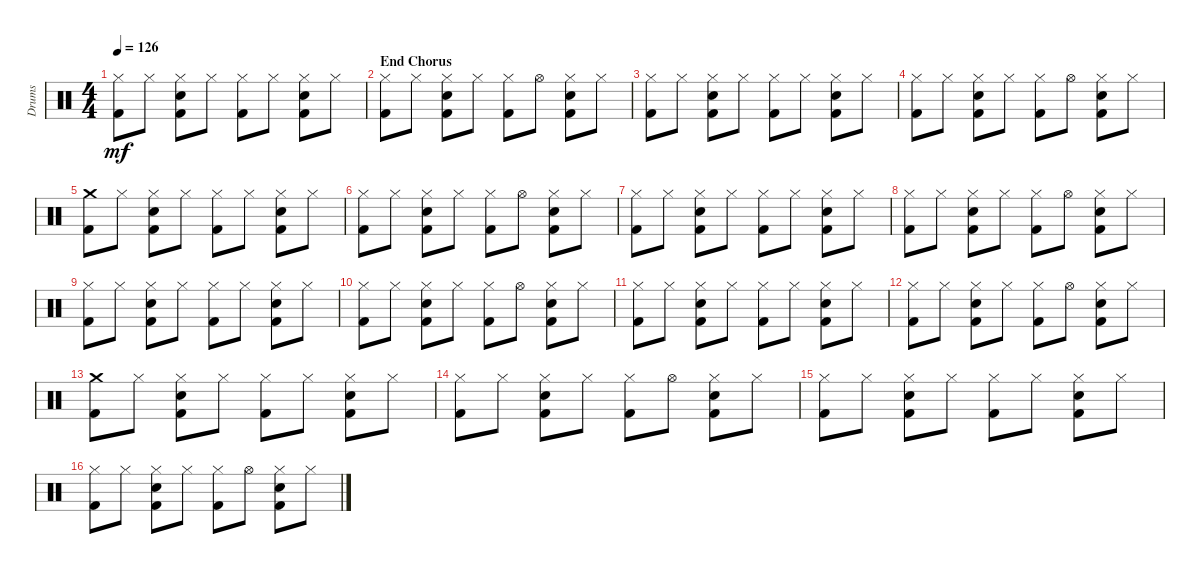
\track ("Drums" "Drums") {instrument percussion}
\staff {score}
\articulation defaults
\ts (4 4)
\tempo 126
\clef neutral
\ks c
("Hi-Hat (closed)" "Kick (hit) 2").8{dy mf} "Hi-Hat (closed)".8 ("Hi-Hat (closed)" "Snare (hit) 2" "Kick (hit) 2").8 "Hi-Hat (closed)".8 ("Hi-Hat (closed)" "Kick (hit) 2").8 "Hi-Hat (closed)".8 ("Hi-Hat (closed)" "Snare (hit) 2" "Kick (hit) 2").8 "Hi-Hat (closed)".8 |
\section ("" "End Chorus")
("Hi-Hat (closed)" "Kick (hit) 2").8 "Hi-Hat (closed)".8 ("Hi-Hat (closed)" "Snare (hit) 2" "Kick (hit) 2").8 "Hi-Hat (closed)".8 ("Hi-Hat (closed)" "Kick (hit) 2").8 "Hi-Hat (open)".8 ("Hi-Hat (closed)" "Snare (hit) 2" "Kick (hit) 2").8 "Hi-Hat (closed)".8 |
("Hi-Hat (closed)" "Kick (hit) 2").8 "Hi-Hat (closed)".8 ("Hi-Hat (closed)" "Snare (hit) 2" "Kick (hit) 2").8 "Hi-Hat (closed)".8 ("Hi-Hat (closed)" "Kick (hit) 2").8 "Hi-Hat (closed)".8 ("Hi-Hat (closed)" "Snare (hit) 2" "Kick (hit) 2").8 "Hi-Hat (closed)".8 |
("Hi-Hat (closed)" "Kick (hit) 2").8 "Hi-Hat (closed)".8 ("Hi-Hat (closed)" "Snare (hit) 2" "Kick (hit) 2").8 "Hi-Hat (closed)".8 ("Hi-Hat (closed)" "Kick (hit) 2").8 "Hi-Hat (open)".8 ("Hi-Hat (closed)" "Snare (hit) 2" "Kick (hit) 2").8 "Hi-Hat (closed)".8 |
("Crash medium (hit)" "Kick (hit) 2").8 "Hi-Hat (closed)".8 ("Hi-Hat (closed)" "Snare (hit) 2" "Kick (hit) 2").8 "Hi-Hat (closed)".8 ("Hi-Hat (closed)" "Kick (hit) 2").8 "Hi-Hat (closed)".8 ("Hi-Hat (closed)" "Snare (hit) 2" "Kick (hit) 2").8 "Hi-Hat (closed)".8 |
("Hi-Hat (closed)" "Kick (hit) 2").8 "Hi-Hat (closed)".8 ("Hi-Hat (closed)" "Snare (hit) 2" "Kick (hit) 2").8 "Hi-Hat (closed)".8 ("Hi-Hat (closed)" "Kick (hit) 2").8 "Hi-Hat (open)".8 ("Hi-Hat (closed)" "Snare (hit) 2" "Kick (hit) 2").8 "Hi-Hat (closed)".8 |
("Hi-Hat (closed)" "Kick (hit) 2").8 "Hi-Hat (closed)".8 ("Hi-Hat (closed)" "Snare (hit) 2" "Kick (hit) 2").8 "Hi-Hat (closed)".8 ("Hi-Hat (closed)" "Kick (hit) 2").8 "Hi-Hat (closed)".8 ("Hi-Hat (closed)" "Snare (hit) 2" "Kick (hit) 2").8 "Hi-Hat (closed)".8 |
("Hi-Hat (closed)" "Kick (hit) 2").8 "Hi-Hat (closed)".8 ("Hi-Hat (closed)" "Snare (hit) 2" "Kick (hit) 2").8 "Hi-Hat (closed)".8 ("Hi-Hat (closed)" "Kick (hit) 2").8 "Hi-Hat (open)".8 ("Hi-Hat (closed)" "Snare (hit) 2" "Kick (hit) 2").8 "Hi-Hat (closed)".8 |
("Hi-Hat (closed)" "Kick (hit) 2").8 "Hi-Hat (closed)".8 ("Hi-Hat (closed)" "Snare (hit) 2" "Kick (hit) 2").8 "Hi-Hat (closed)".8 ("Hi-Hat (closed)" "Kick (hit) 2").8 "Hi-Hat (closed)".8 ("Hi-Hat (closed)" "Snare (hit) 2" "Kick (hit) 2").8 "Hi-Hat (closed)".8 |
("Hi-Hat (closed)" "Kick (hit) 2").8 "Hi-Hat (closed)".8 ("Hi-Hat (closed)" "Snare (hit) 2" "Kick (hit) 2").8 "Hi-Hat (closed)".8 ("Hi-Hat (closed)" "Kick (hit) 2").8 "Hi-Hat (open)".8 ("Hi-Hat (closed)" "Snare (hit) 2" "Kick (hit) 2").8 "Hi-Hat (closed)".8 |
("Hi-Hat (closed)" "Kick (hit) 2").8 "Hi-Hat (closed)".8 ("Hi-Hat (closed)" "Snare (hit) 2" "Kick (hit) 2").8 "Hi-Hat (closed)".8 ("Hi-Hat (closed)" "Kick (hit) 2").8 "Hi-Hat (closed)".8 ("Hi-Hat (closed)" "Snare (hit) 2" "Kick (hit) 2").8 "Hi-Hat (closed)".8 |
("Hi-Hat (closed)" "Kick (hit) 2").8 "Hi-Hat (closed)".8 ("Hi-Hat (closed)" "Snare (hit) 2" "Kick (hit) 2").8 "Hi-Hat (closed)".8 ("Hi-Hat (closed)" "Kick (hit) 2").8 "Hi-Hat (open)".8 ("Hi-Hat (closed)" "Snare (hit) 2" "Kick (hit) 2").8 "Hi-Hat (closed)".8 |
("Crash medium (hit)" "Kick (hit) 2").8 "Hi-Hat (closed)".8 ("Hi-Hat (closed)" "Snare (hit) 2" "Kick (hit) 2").8 "Hi-Hat (closed)".8 ("Hi-Hat (closed)" "Kick (hit) 2").8 "Hi-Hat (closed)".8 ("Hi-Hat (closed)" "Snare (hit) 2" "Kick (hit) 2").8 "Hi-Hat (closed)".8 |
("Hi-Hat (closed)" "Kick (hit) 2").8 "Hi-Hat (closed)".8 ("Hi-Hat (closed)" "Snare (hit) 2" "Kick (hit) 2").8 "Hi-Hat (closed)".8 ("Hi-Hat (closed)" "Kick (hit) 2").8 "Hi-Hat (open)".8 ("Hi-Hat (closed)" "Snare (hit) 2" "Kick (hit) 2").8 "Hi-Hat (closed)".8 |
("Hi-Hat (closed)" "Kick (hit) 2").8 "Hi-Hat (closed)".8 ("Hi-Hat (closed)" "Snare (hit) 2" "Kick (hit) 2").8 "Hi-Hat (closed)".8 ("Hi-Hat (closed)" "Kick (hit) 2").8 "Hi-Hat (closed)".8 ("Hi-Hat (closed)" "Snare (hit) 2" "Kick (hit) 2").8 "Hi-Hat (closed)".8 |
("Hi-Hat (closed)" "Kick (hit) 2").8 "Hi-Hat (closed)".8 ("Hi-Hat (closed)" "Snare (hit) 2" "Kick (hit) 2").8 "Hi-Hat (closed)".8 ("Hi-Hat (closed)" "Kick (hit) 2").8 "Hi-Hat (open)".8 ("Hi-Hat (closed)" "Snare (hit) 2" "Kick (hit) 2").8 "Hi-Hat (closed)".8
